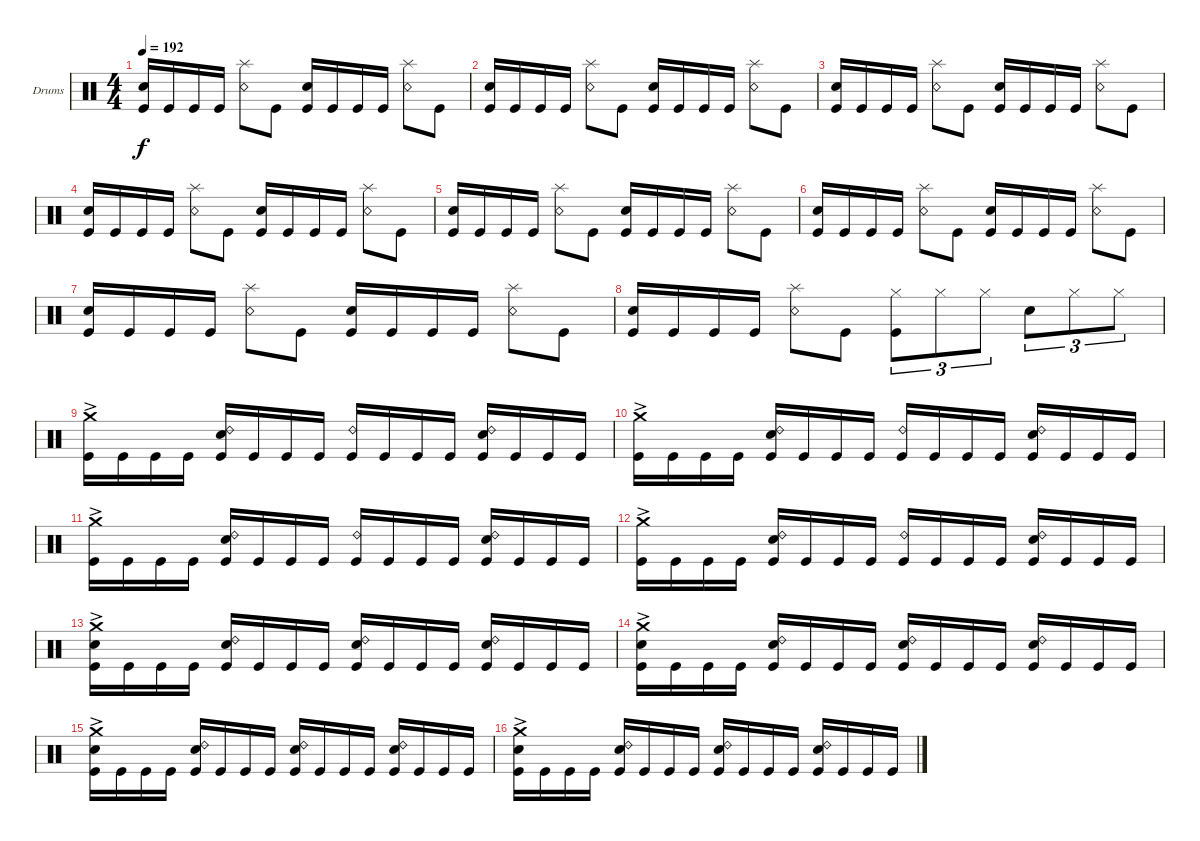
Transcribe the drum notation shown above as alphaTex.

\defaultSystemsLayout 4
\bracketExtendMode groupsimilarinstruments
\firstSystemTrackNameOrientation horizontal
\otherSystemsTrackNameOrientation horizontal
\track ("Drumkit" "Drums") {instrument percussion}
\staff {score}
\articulation defaults
\ts (4 4)
\tempo 192
\clef neutral
\ks c
("Snare (hit) 2" "Kick (hit)").16{dy f} "Kick (hit)".16 "Kick (hit)".16 "Kick (hit)".16 ("Snare (rim shot)" "Splash (hit)").8 "Kick (hit)".8 ("Snare (hit) 2" "Kick (hit)").16 "Kick (hit)".16 "Kick (hit)".16 "Kick (hit)".16 ("Snare (rim shot)" "Splash (hit)").8 "Kick (hit)".8 |
("Snare (hit) 2" "Kick (hit)").16 "Kick (hit)".16 "Kick (hit)".16 "Kick (hit)".16 ("Snare (rim shot)" "Splash (hit)").8 "Kick (hit)".8 ("Snare (hit) 2" "Kick (hit)").16 "Kick (hit)".16 "Kick (hit)".16 "Kick (hit)".16 ("Snare (rim shot)" "Splash (hit)").8 "Kick (hit)".8 |
("Snare (hit) 2" "Kick (hit)").16 "Kick (hit)".16 "Kick (hit)".16 "Kick (hit)".16 ("Snare (rim shot)" "Splash (hit)").8 "Kick (hit)".8 ("Snare (hit) 2" "Kick (hit)").16 "Kick (hit)".16 "Kick (hit)".16 "Kick (hit)".16 ("Snare (rim shot)" "Splash (hit)").8 "Kick (hit)".8 |
("Snare (hit) 2" "Kick (hit)").16 "Kick (hit)".16 "Kick (hit)".16 "Kick (hit)".16 ("Snare (rim shot)" "Splash (hit)").8 "Kick (hit)".8 ("Snare (hit) 2" "Kick (hit)").16 "Kick (hit)".16 "Kick (hit)".16 "Kick (hit)".16 ("Snare (rim shot)" "Splash (hit)").8 "Kick (hit)".8 |
("Snare (hit) 2" "Kick (hit)").16 "Kick (hit)".16 "Kick (hit)".16 "Kick (hit)".16 ("Snare (rim shot)" "Splash (hit)").8 "Kick (hit)".8 ("Snare (hit) 2" "Kick (hit)").16 "Kick (hit)".16 "Kick (hit)".16 "Kick (hit)".16 ("Snare (rim shot)" "Splash (hit)").8 "Kick (hit)".8 |
("Snare (hit) 2" "Kick (hit)").16 "Kick (hit)".16 "Kick (hit)".16 "Kick (hit)".16 ("Snare (rim shot)" "Splash (hit)").8 "Kick (hit)".8 ("Snare (hit) 2" "Kick (hit)").16 "Kick (hit)".16 "Kick (hit)".16 "Kick (hit)".16 ("Snare (rim shot)" "Splash (hit)").8 "Kick (hit)".8 |
("Snare (hit) 2" "Kick (hit)").16 "Kick (hit)".16 "Kick (hit)".16 "Kick (hit)".16 ("Snare (rim shot)" "Splash (hit)").8 "Kick (hit)".8 ("Snare (hit) 2" "Kick (hit)").16 "Kick (hit)".16 "Kick (hit)".16 "Kick (hit)".16 ("Snare (rim shot)" "Splash (hit)").8 "Kick (hit)".8 |
("Snare (hit) 2" "Kick (hit)").16 "Kick (hit)".16 "Kick (hit)".16 "Kick (hit)".16 ("Snare (rim shot)" "Splash (hit)").8 "Kick (hit)".8 ("Hi-Hat (closed)" "Kick (hit)").8{tu (3 2)} "Hi-Hat (closed)".8{tu (3 2)} "Hi-Hat (closed)".8{tu (3 2)} "Snare (hit) 2".8{tu (3 2)} "Hi-Hat (closed)".8{tu (3 2)} "Hi-Hat (closed)".8{tu (3 2)} |
("Kick (hit)" "Crash medium (hit)"{ac}).16 "Kick (hit)".16 "Kick (hit)".16 "Kick (hit)".16 ("Kick (hit)" "Ride (bell) 2" "Snare (hit) 2").16 "Kick (hit)".16 "Kick (hit)".16 "Kick (hit)".16 ("Kick (hit)" "Ride (bell) 2").16 "Kick (hit)".16 "Kick (hit)".16 "Kick (hit)".16 ("Kick (hit)" "Ride (bell) 2" "Snare (hit) 2").16 "Kick (hit)".16 "Kick (hit)".16 "Kick (hit)".16 |
("Kick (hit)" "Crash medium (hit)"{ac}).16 "Kick (hit)".16 "Kick (hit)".16 "Kick (hit)".16 ("Kick (hit)" "Ride (bell) 2" "Snare (hit) 2").16 "Kick (hit)".16 "Kick (hit)".16 "Kick (hit)".16 ("Kick (hit)" "Ride (bell) 2").16 "Kick (hit)".16 "Kick (hit)".16 "Kick (hit)".16 ("Kick (hit)" "Ride (bell) 2" "Snare (hit) 2").16 "Kick (hit)".16 "Kick (hit)".16 "Kick (hit)".16 |
("Kick (hit)" "Crash medium (hit)"{ac}).16 "Kick (hit)".16 "Kick (hit)".16 "Kick (hit)".16 ("Kick (hit)" "Ride (bell) 2" "Snare (hit) 2").16 "Kick (hit)".16 "Kick (hit)".16 "Kick (hit)".16 ("Kick (hit)" "Ride (bell) 2").16 "Kick (hit)".16 "Kick (hit)".16 "Kick (hit)".16 ("Kick (hit)" "Ride (bell) 2" "Snare (hit) 2").16 "Kick (hit)".16 "Kick (hit)".16 "Kick (hit)".16 |
("Kick (hit)" "Crash medium (hit)"{ac}).16 "Kick (hit)".16 "Kick (hit)".16 "Kick (hit)".16 ("Kick (hit)" "Ride (bell) 2" "Snare (hit) 2").16 "Kick (hit)".16 "Kick (hit)".16 "Kick (hit)".16 ("Kick (hit)" "Ride (bell) 2").16 "Kick (hit)".16 "Kick (hit)".16 "Kick (hit)".16 ("Kick (hit)" "Ride (bell) 2" "Snare (hit) 2").16 "Kick (hit)".16 "Kick (hit)".16 "Kick (hit)".16 |
("Kick (hit)" "Crash medium (hit)"{ac} "Snare (hit) 2").16 "Kick (hit)".16 "Kick (hit)".16 "Kick (hit)".16 ("Kick (hit)" "Ride (bell) 2" "Snare (hit) 2").16 "Kick (hit)".16 "Kick (hit)".16 "Kick (hit)".16 ("Kick (hit)" "Ride (bell) 2" "Snare (hit) 2").16 "Kick (hit)".16 "Kick (hit)".16 "Kick (hit)".16 ("Kick (hit)" "Ride (bell) 2" "Snare (hit) 2").16 "Kick (hit)".16 "Kick (hit)".16 "Kick (hit)".16 |
("Kick (hit)" "Crash medium (hit)"{ac} "Snare (hit) 2").16 "Kick (hit)".16 "Kick (hit)".16 "Kick (hit)".16 ("Kick (hit)" "Ride (bell) 2" "Snare (hit) 2").16 "Kick (hit)".16 "Kick (hit)".16 "Kick (hit)".16 ("Kick (hit)" "Ride (bell) 2" "Snare (hit) 2").16 "Kick (hit)".16 "Kick (hit)".16 "Kick (hit)".16 ("Kick (hit)" "Ride (bell) 2" "Snare (hit) 2").16 "Kick (hit)".16 "Kick (hit)".16 "Kick (hit)".16 |
("Kick (hit)" "Crash medium (hit)"{ac} "Snare (hit) 2").16 "Kick (hit)".16 "Kick (hit)".16 "Kick (hit)".16 ("Kick (hit)" "Ride (bell) 2" "Snare (hit) 2").16 "Kick (hit)".16 "Kick (hit)".16 "Kick (hit)".16 ("Kick (hit)" "Ride (bell) 2" "Snare (hit) 2").16 "Kick (hit)".16 "Kick (hit)".16 "Kick (hit)".16 ("Kick (hit)" "Ride (bell) 2" "Snare (hit) 2").16 "Kick (hit)".16 "Kick (hit)".16 "Kick (hit)".16 |
("Kick (hit)" "Crash medium (hit)"{ac} "Snare (hit) 2").16 "Kick (hit)".16 "Kick (hit)".16 "Kick (hit)".16 ("Kick (hit)" "Ride (bell) 2" "Snare (hit) 2").16 "Kick (hit)".16 "Kick (hit)".16 "Kick (hit)".16 ("Kick (hit)" "Ride (bell) 2" "Snare (hit) 2").16 "Kick (hit)".16 "Kick (hit)".16 "Kick (hit)".16 ("Kick (hit)" "Ride (bell) 2" "Snare (hit) 2").16 "Kick (hit)".16 "Kick (hit)".16 "Kick (hit)".16
